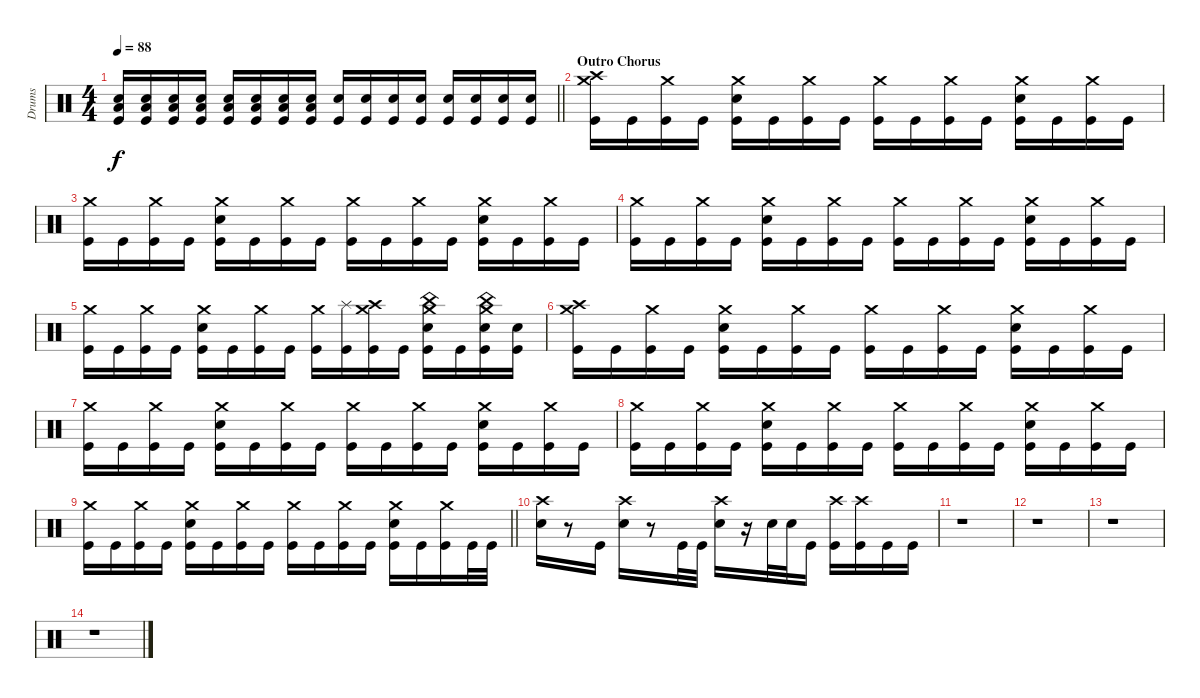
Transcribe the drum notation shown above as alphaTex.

\track ("Drums" "Drums") {instrument percussion}
\staff {score}
\articulation defaults
\ts (4 4)
\tempo 88
\clef neutral
\barLineRight lightlight
\ks c
("Electric Snare (hit)" "Low Floor Tom (hit)" "Kick (hit)").16{dy f} ("Electric Snare (hit)" "Low Floor Tom (hit)" "Kick (hit)").16 ("Electric Snare (hit)" "Low Floor Tom (hit)" "Kick (hit)").16 ("Electric Snare (hit)" "Low Floor Tom (hit)" "Kick (hit)").16 ("Electric Snare (hit)" "Low Floor Tom (hit)" "Kick (hit)").16 ("Electric Snare (hit)" "Low Floor Tom (hit)" "Kick (hit)").16 ("Electric Snare (hit)" "Low Floor Tom (hit)" "Kick (hit)").16 ("Electric Snare (hit)" "Low Floor Tom (hit)" "Kick (hit)").16 ("Electric Snare (hit)" "Kick (hit)").16 ("Electric Snare (hit)" "Kick (hit)").16 ("Electric Snare (hit)" "Kick (hit)").16 ("Electric Snare (hit)" "Kick (hit)").16 ("Electric Snare (hit)" "Kick (hit)").16 ("Electric Snare (hit)" "Kick (hit)").16 ("Electric Snare (hit)" "Kick (hit)").16 ("Electric Snare (hit)" "Kick (hit)").16 |
\section ("" "Outro Chorus")
("Crash medium (hit)" "Crash high (hit)" "Kick (hit)").16 "Kick (hit)".16 ("Crash medium (hit)" "Kick (hit)").16 "Kick (hit)".16 ("Crash medium (hit)" "Electric Snare (hit)" "Kick (hit)").16 "Kick (hit)".16 ("Crash medium (hit)" "Kick (hit)").16 "Kick (hit)".16 ("Crash medium (hit)" "Kick (hit)").16 "Kick (hit)".16 ("Crash medium (hit)" "Kick (hit)").16 "Kick (hit)".16 ("Crash medium (hit)" "Electric Snare (hit)" "Kick (hit)").16 "Kick (hit)".16 ("Crash medium (hit)" "Kick (hit)").16 "Kick (hit)".16 |
("Crash medium (hit)" "Kick (hit)").16 "Kick (hit)".16 ("Crash medium (hit)" "Kick (hit)").16 "Kick (hit)".16 ("Crash medium (hit)" "Electric Snare (hit)" "Kick (hit)").16 "Kick (hit)".16 ("Crash medium (hit)" "Kick (hit)").16 "Kick (hit)".16 ("Crash medium (hit)" "Kick (hit)").16 "Kick (hit)".16 ("Crash medium (hit)" "Kick (hit)").16 "Kick (hit)".16 ("Crash medium (hit)" "Electric Snare (hit)" "Kick (hit)").16 "Kick (hit)".16 ("Crash medium (hit)" "Kick (hit)").16 "Kick (hit)".16 |
("Crash medium (hit)" "Kick (hit)").16 "Kick (hit)".16 ("Crash medium (hit)" "Kick (hit)").16 "Kick (hit)".16 ("Crash medium (hit)" "Electric Snare (hit)" "Kick (hit)").16 "Kick (hit)".16 ("Crash medium (hit)" "Kick (hit)").16 "Kick (hit)".16 ("Crash medium (hit)" "Kick (hit)").16 "Kick (hit)".16 ("Crash medium (hit)" "Kick (hit)").16 "Kick (hit)".16 ("Crash medium (hit)" "Electric Snare (hit)" "Kick (hit)").16 "Kick (hit)".16 ("Crash medium (hit)" "Kick (hit)").16 "Kick (hit)".16 |
("Crash medium (hit)" "Kick (hit)").16 "Kick (hit)".16 ("Crash medium (hit)" "Kick (hit)").16 "Kick (hit)".16 ("Crash medium (hit)" "Electric Snare (hit)" "Kick (hit)").16 "Kick (hit)".16 ("Crash medium (hit)" "Kick (hit)").16 "Kick (hit)".16 ("Crash medium (hit)" "Kick (hit)").16 ("Splash (hit)" "Kick (hit)").16 ("Crash medium (hit)" "Crash high (hit)" "Kick (hit)").16 "Kick (hit)".16 ("Crash medium (hit)" "China (hit)" "Electric Snare (hit)" "Kick (hit)").16 "Kick (hit)".16 ("Crash medium (hit)" "China (hit)" "Electric Snare (hit)" "Kick (hit)").16 ("Electric Snare (hit)" "Kick (hit)").16 |
("Crash medium (hit)" "Crash high (hit)" "Kick (hit)").16 "Kick (hit)".16 ("Crash medium (hit)" "Kick (hit)").16 "Kick (hit)".16 ("Crash medium (hit)" "Electric Snare (hit)" "Kick (hit)").16 "Kick (hit)".16 ("Crash medium (hit)" "Kick (hit)").16 "Kick (hit)".16 ("Crash medium (hit)" "Kick (hit)").16 "Kick (hit)".16 ("Crash medium (hit)" "Kick (hit)").16 "Kick (hit)".16 ("Crash medium (hit)" "Electric Snare (hit)" "Kick (hit)").16 "Kick (hit)".16 ("Crash medium (hit)" "Kick (hit)").16 "Kick (hit)".16 |
("Crash medium (hit)" "Kick (hit)").16 "Kick (hit)".16 ("Crash medium (hit)" "Kick (hit)").16 "Kick (hit)".16 ("Crash medium (hit)" "Electric Snare (hit)" "Kick (hit)").16 "Kick (hit)".16 ("Crash medium (hit)" "Kick (hit)").16 "Kick (hit)".16 ("Crash medium (hit)" "Kick (hit)").16 "Kick (hit)".16 ("Crash medium (hit)" "Kick (hit)").16 "Kick (hit)".16 ("Crash medium (hit)" "Electric Snare (hit)" "Kick (hit)").16 "Kick (hit)".16 ("Crash medium (hit)" "Kick (hit)").16 "Kick (hit)".16 |
("Crash medium (hit)" "Kick (hit)").16 "Kick (hit)".16 ("Crash medium (hit)" "Kick (hit)").16 "Kick (hit)".16 ("Crash medium (hit)" "Electric Snare (hit)" "Kick (hit)").16 "Kick (hit)".16 ("Crash medium (hit)" "Kick (hit)").16 "Kick (hit)".16 ("Crash medium (hit)" "Kick (hit)").16 "Kick (hit)".16 ("Crash medium (hit)" "Kick (hit)").16 "Kick (hit)".16 ("Crash medium (hit)" "Electric Snare (hit)" "Kick (hit)").16 "Kick (hit)".16 ("Crash medium (hit)" "Kick (hit)").16 "Kick (hit)".16 |
\barLineRight lightlight
("Crash medium (hit)" "Kick (hit)").16 "Kick (hit)".16 ("Crash medium (hit)" "Kick (hit)").16 "Kick (hit)".16 ("Crash medium (hit)" "Electric Snare (hit)" "Kick (hit)").16 "Kick (hit)".16 ("Crash medium (hit)" "Kick (hit)").16 "Kick (hit)".16 ("Crash medium (hit)" "Kick (hit)").16 "Kick (hit)".16 ("Crash medium (hit)" "Kick (hit)").16 "Kick (hit)".16 ("Crash medium (hit)" "Electric Snare (hit)" "Kick (hit)").16 "Kick (hit)".16 ("Crash medium (hit)" "Kick (hit)").16 "Kick (hit)".32 "Kick (hit)".32 |
("Crash high (hit)" "Electric Snare (hit)").16 r.8 "Kick (hit)".16 ("Crash high (hit)" "Electric Snare (hit)").16 r.8 "Kick (hit)".32 "Kick (hit)".32 ("Crash high (hit)" "Electric Snare (hit)").16 r.16 "Electric Snare (hit)".32 "Electric Snare (hit)".32 "Kick (hit)".16 ("Crash high (hit)" "Kick (hit)").16 ("Crash high (hit)" "Kick (hit)").16 "Kick (hit)".16 "Kick (hit)".16 |
r.1 |
r.1 |
r.1 |
r.1
